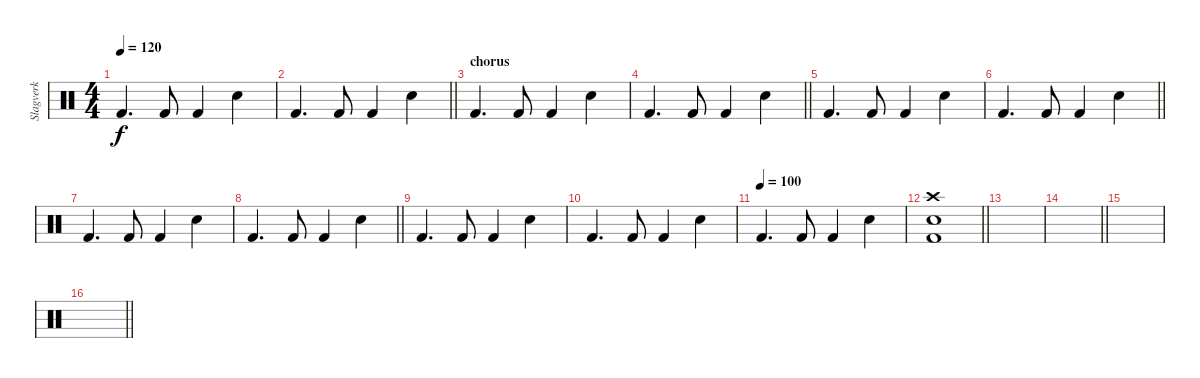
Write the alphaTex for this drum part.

\track ("Slagverk" "Slagverk") {instrument percussion}
\staff {score}
\articulation defaults
\ts (4 4)
\tempo 120
\clef neutral
\ks c "Kick (hit) 2".4{d dy f} "Kick (hit) 2".8 "Kick (hit) 2".4 "Snare (hit) 2".4
|
\barLineRight lightlight "Kick (hit) 2".4{d} "Kick (hit) 2".8 "Kick (hit) 2".4 "Snare (hit) 2".4
|
\section ("" "chorus")
"Kick (hit) 2".4{d} "Kick (hit) 2".8 "Kick (hit) 2".4 "Snare (hit) 2".4 |
\barLineRight lightlight "Kick (hit) 2".4{d} "Kick (hit) 2".8 "Kick (hit) 2".4 "Snare (hit) 2".4
|
"Kick (hit) 2".4{d} "Kick (hit) 2".8 "Kick (hit) 2".4 "Snare (hit) 2".4 |
\barLineRight lightlight "Kick (hit) 2".4{d} "Kick (hit) 2".8 "Kick (hit) 2".4 "Snare (hit) 2".4
|
"Kick (hit) 2".4{d} "Kick (hit) 2".8 "Kick (hit) 2".4 "Snare (hit) 2".4 |
\barLineRight lightlight "Kick (hit) 2".4{d} "Kick (hit) 2".8 "Kick (hit) 2".4 "Snare (hit) 2".4
|
"Kick (hit) 2".4{d} "Kick (hit) 2".8 "Kick (hit) 2".4 "Snare (hit) 2".4 |
"Kick (hit) 2".4{d} "Kick (hit) 2".8 "Kick (hit) 2".4 "Snare (hit) 2".4 |
\tempo (100)
"Kick (hit) 2".4{d} "Kick (hit) 2".8 "Kick (hit) 2".4 "Snare (hit) 2".4 |
\barLineRight lightlight
("Kick (hit) 2" "Snare (hit) 2" "Crash high (hit)").1 |
|
\barLineRight lightlight
|
|
\barLineRight lightlight
